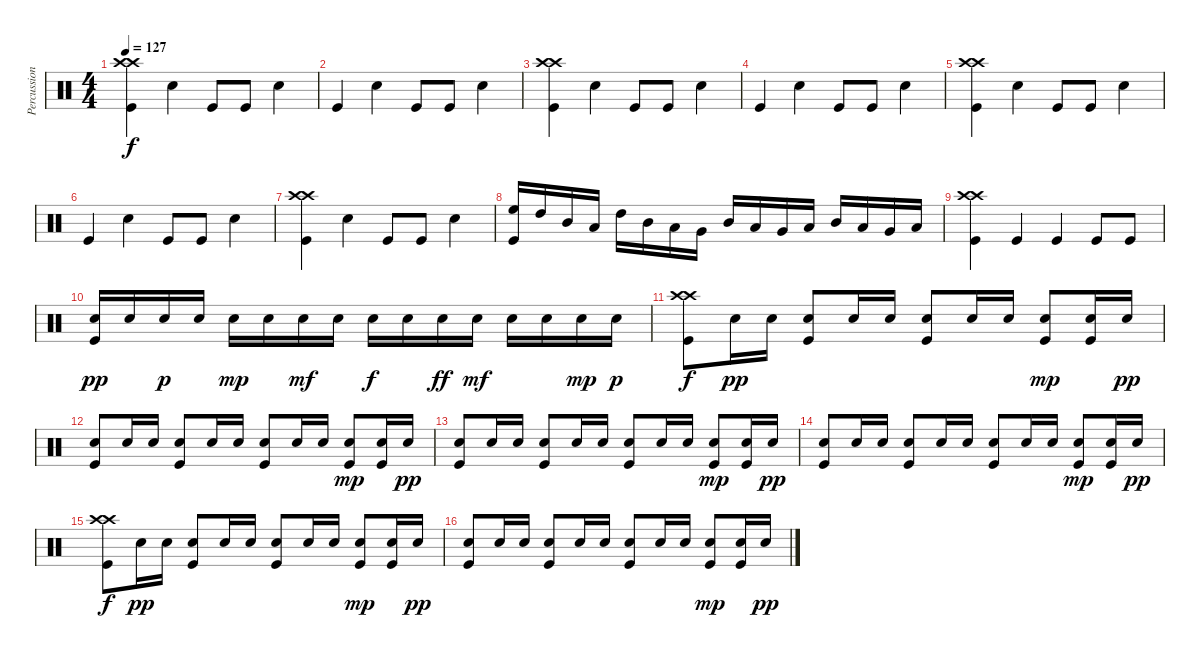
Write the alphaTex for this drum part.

\track ("Percussion" "Percussion") {instrument percussion}
\staff {score}
\articulation defaults
\ts (4 4)
\tempo 127
\clef neutral
\ks c
("Crash high (hit)" "Crash high (hit)" "Kick (hit)").4{dy f} "Snare (hit) 2".4 "Kick (hit)".8 "Kick (hit)".8 "Snare (hit) 2".4 |
"Kick (hit)".4 "Snare (hit) 2".4 "Kick (hit)".8 "Kick (hit)".8 "Snare (hit) 2".4 |
("Crash high (hit)" "Crash high (hit)" "Kick (hit)").4 "Snare (hit) 2".4 "Kick (hit)".8 "Kick (hit)".8 "Snare (hit) 2".4 |
"Kick (hit)".4 "Snare (hit) 2".4 "Kick (hit)".8 "Kick (hit)".8 "Snare (hit) 2".4 |
("Crash high (hit)" "Crash high (hit)" "Kick (hit)").4 "Snare (hit) 2".4 "Kick (hit)".8 "Kick (hit)".8 "Snare (hit) 2".4 |
"Kick (hit)".4 "Snare (hit) 2".4 "Kick (hit)".8 "Kick (hit)".8 "Snare (hit) 2".4 |
("Crash high (hit)" "Crash high (hit)" "Kick (hit)").4 "Snare (hit) 2".4 "Kick (hit)".8 "Kick (hit)".8 "Snare (hit) 2".4 |
("High Floor Tom (hit)" "Kick (hit)").16 "High Tom (hit)".16 "Mid Tom (hit)".16 "Low Tom (hit)".16 "High Tom (hit)".16 "Mid Tom (hit)".16 "Low Tom (hit)".16 "Very Low Tom (hit)".16 "Mid Tom (hit)".16 "Low Tom (hit)".16 "Very Low Tom (hit)".16 "Low Floor Tom (hit)".16 "Mid Tom (hit)".16 "Low Tom (hit)".16 "Very Low Tom (hit)".16 "Low Floor Tom (hit)".16 |
("Crash high (hit)" "Crash high (hit)" "Kick (hit)").4 "Kick (hit)".4 "Kick (hit)".4 "Kick (hit)".8 "Kick (hit)".8 |
("Snare (hit) 2" "Kick (hit)").16{dy pp} "Snare (hit) 2".16 "Snare (hit) 2".16{dy p} "Snare (hit) 2".16 "Snare (hit) 2".16{dy mp} "Snare (hit) 2".16 "Snare (hit) 2".16{dy mf} "Snare (hit) 2".16 "Snare (hit) 2".16{dy f} "Snare (hit) 2".16 "Snare (hit) 2".16{dy ff} "Snare (hit) 2".16{dy mf} "Snare (hit) 2".16 "Snare (hit) 2".16 "Snare (hit) 2".16{dy mp} "Snare (hit) 2".16{dy p} |
("Crash high (hit)" "Crash high (hit)" "Kick (hit)").8{dy f} "Snare (hit) 2".16{dy pp} "Snare (hit) 2".16 ("Snare (hit) 2" "Kick (hit)").8 "Snare (hit) 2".16 "Snare (hit) 2".16 ("Snare (hit) 2" "Kick (hit)").8 "Snare (hit) 2".16 "Snare (hit) 2".16 ("Snare (hit) 2" "Kick (hit)").8{dy mp} ("Snare (hit) 2" "Kick (hit)").16 "Snare (hit) 2".16{dy pp} |
("Snare (hit) 2" "Kick (hit)").8 "Snare (hit) 2".16 "Snare (hit) 2".16 ("Snare (hit) 2" "Kick (hit)").8 "Snare (hit) 2".16 "Snare (hit) 2".16 ("Snare (hit) 2" "Kick (hit)").8 "Snare (hit) 2".16 "Snare (hit) 2".16 ("Snare (hit) 2" "Kick (hit)").8{dy mp} ("Snare (hit) 2" "Kick (hit)").16 "Snare (hit) 2".16{dy pp} |
("Snare (hit) 2" "Kick (hit)").8 "Snare (hit) 2".16 "Snare (hit) 2".16 ("Snare (hit) 2" "Kick (hit)").8 "Snare (hit) 2".16 "Snare (hit) 2".16 ("Snare (hit) 2" "Kick (hit)").8 "Snare (hit) 2".16 "Snare (hit) 2".16 ("Snare (hit) 2" "Kick (hit)").8{dy mp} ("Snare (hit) 2" "Kick (hit)").16 "Snare (hit) 2".16{dy pp} |
("Snare (hit) 2" "Kick (hit)").8 "Snare (hit) 2".16 "Snare (hit) 2".16 ("Snare (hit) 2" "Kick (hit)").8 "Snare (hit) 2".16 "Snare (hit) 2".16 ("Snare (hit) 2" "Kick (hit)").8 "Snare (hit) 2".16 "Snare (hit) 2".16 ("Snare (hit) 2" "Kick (hit)").8{dy mp} ("Snare (hit) 2" "Kick (hit)").16 "Snare (hit) 2".16{dy pp} |
("Crash high (hit)" "Crash high (hit)" "Kick (hit)").8{dy f} "Snare (hit) 2".16{dy pp} "Snare (hit) 2".16 ("Snare (hit) 2" "Kick (hit)").8 "Snare (hit) 2".16 "Snare (hit) 2".16 ("Snare (hit) 2" "Kick (hit)").8 "Snare (hit) 2".16 "Snare (hit) 2".16 ("Snare (hit) 2" "Kick (hit)").8{dy mp} ("Snare (hit) 2" "Kick (hit)").16 "Snare (hit) 2".16{dy pp} |
("Snare (hit) 2" "Kick (hit)").8 "Snare (hit) 2".16 "Snare (hit) 2".16 ("Snare (hit) 2" "Kick (hit)").8 "Snare (hit) 2".16 "Snare (hit) 2".16 ("Snare (hit) 2" "Kick (hit)").8 "Snare (hit) 2".16 "Snare (hit) 2".16 ("Snare (hit) 2" "Kick (hit)").8{dy mp} ("Snare (hit) 2" "Kick (hit)").16 "Snare (hit) 2".16{dy pp}
